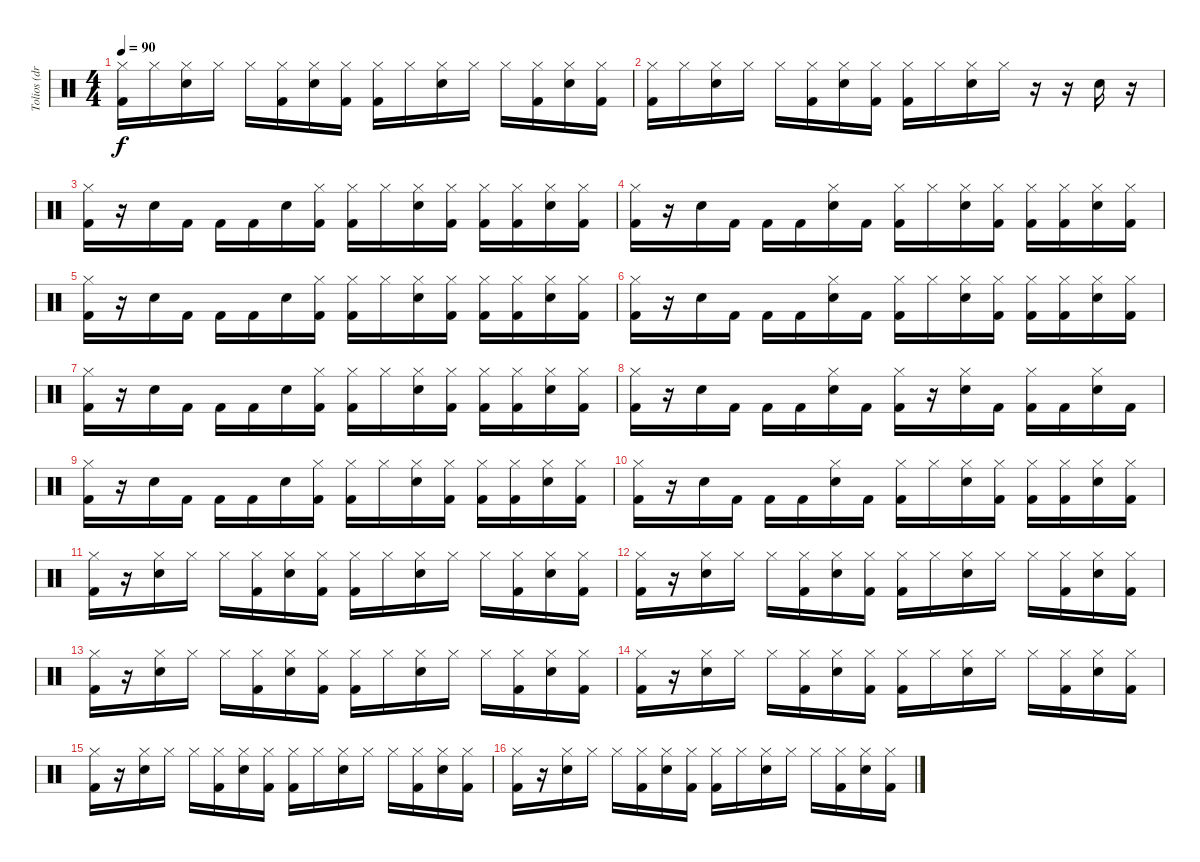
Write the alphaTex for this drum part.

\track ("Tolios (drums)" "Tolios (dr") {instrument percussion}
\staff {score}
\articulation defaults
\ts (4 4)
\tempo 90
\clef neutral
\ks c
("Hi-Hat (closed)" "Kick (hit) 2").16{dy f} "Hi-Hat (closed)".16 ("Hi-Hat (closed)" "Snare (hit) 2").16 "Hi-Hat (closed)".16 "Hi-Hat (closed)".16 ("Hi-Hat (closed)" "Kick (hit) 2").16 ("Hi-Hat (closed)" "Snare (hit) 2").16 ("Hi-Hat (closed)" "Kick (hit) 2").16 ("Hi-Hat (closed)" "Kick (hit) 2").16 "Hi-Hat (closed)".16 ("Hi-Hat (closed)" "Snare (hit) 2").16 "Hi-Hat (closed)".16 "Hi-Hat (closed)".16 ("Hi-Hat (closed)" "Kick (hit) 2").16 ("Hi-Hat (closed)" "Snare (hit) 2").16 ("Hi-Hat (closed)" "Kick (hit) 2").16 |
("Hi-Hat (closed)" "Kick (hit) 2").16 "Hi-Hat (closed)".16 ("Hi-Hat (closed)" "Snare (hit) 2").16 "Hi-Hat (closed)".16 "Hi-Hat (closed)".16 ("Hi-Hat (closed)" "Kick (hit) 2").16 ("Hi-Hat (closed)" "Snare (hit) 2").16 ("Hi-Hat (closed)" "Kick (hit) 2").16 ("Hi-Hat (closed)" "Kick (hit) 2").16 "Hi-Hat (closed)".16 ("Hi-Hat (closed)" "Snare (hit) 2").16 "Hi-Hat (closed)".16 r.16 r.16 "Snare (hit) 2".16 r.16 |
("Hi-Hat (closed)" "Kick (hit) 2").16 r.16 "Snare (hit) 2".16 "Kick (hit) 2".16 "Kick (hit) 2".16 "Kick (hit) 2".16 "Snare (hit) 2".16 ("Hi-Hat (closed)" "Kick (hit) 2").16 ("Hi-Hat (closed)" "Kick (hit) 2").16 "Hi-Hat (closed)".16 ("Hi-Hat (closed)" "Snare (hit) 2").16 ("Hi-Hat (closed)" "Kick (hit) 2").16 ("Hi-Hat (closed)" "Kick (hit) 2").16 ("Kick (hit) 2" "Hi-Hat (closed)").16 ("Hi-Hat (closed)" "Snare (hit) 2").16 ("Kick (hit) 2" "Hi-Hat (closed)").16 |
("Hi-Hat (closed)" "Kick (hit) 2").16 r.16 "Snare (hit) 2".16 "Kick (hit) 2".16 "Kick (hit) 2".16 "Kick (hit) 2".16 ("Hi-Hat (closed)" "Snare (hit) 2").16 "Kick (hit) 2".16 ("Hi-Hat (closed)" "Kick (hit) 2").16 "Hi-Hat (closed)".16 ("Hi-Hat (closed)" "Snare (hit) 2").16 ("Hi-Hat (closed)" "Kick (hit) 2").16 ("Hi-Hat (closed)" "Kick (hit) 2").16 ("Kick (hit) 2" "Hi-Hat (closed)").16 ("Hi-Hat (closed)" "Snare (hit) 2").16 ("Kick (hit) 2" "Hi-Hat (closed)").16 |
("Hi-Hat (closed)" "Kick (hit) 2").16 r.16 "Snare (hit) 2".16 "Kick (hit) 2".16 "Kick (hit) 2".16 "Kick (hit) 2".16 "Snare (hit) 2".16 ("Hi-Hat (closed)" "Kick (hit) 2").16 ("Hi-Hat (closed)" "Kick (hit) 2").16 "Hi-Hat (closed)".16 ("Hi-Hat (closed)" "Snare (hit) 2").16 ("Hi-Hat (closed)" "Kick (hit) 2").16 ("Hi-Hat (closed)" "Kick (hit) 2").16 ("Kick (hit) 2" "Hi-Hat (closed)").16 ("Hi-Hat (closed)" "Snare (hit) 2").16 ("Kick (hit) 2" "Hi-Hat (closed)").16 |
("Hi-Hat (closed)" "Kick (hit) 2").16 r.16 "Snare (hit) 2".16 "Kick (hit) 2".16 "Kick (hit) 2".16 "Kick (hit) 2".16 ("Hi-Hat (closed)" "Snare (hit) 2").16 "Kick (hit) 2".16 ("Hi-Hat (closed)" "Kick (hit) 2").16 "Hi-Hat (closed)".16 ("Hi-Hat (closed)" "Snare (hit) 2").16 ("Hi-Hat (closed)" "Kick (hit) 2").16 ("Hi-Hat (closed)" "Kick (hit) 2").16 ("Kick (hit) 2" "Hi-Hat (closed)").16 ("Hi-Hat (closed)" "Snare (hit) 2").16 ("Kick (hit) 2" "Hi-Hat (closed)").16 |
("Hi-Hat (closed)" "Kick (hit) 2").16 r.16 "Snare (hit) 2".16 "Kick (hit) 2".16 "Kick (hit) 2".16 "Kick (hit) 2".16 "Snare (hit) 2".16 ("Hi-Hat (closed)" "Kick (hit) 2").16 ("Hi-Hat (closed)" "Kick (hit) 2").16 "Hi-Hat (closed)".16 ("Hi-Hat (closed)" "Snare (hit) 2").16 ("Hi-Hat (closed)" "Kick (hit) 2").16 ("Hi-Hat (closed)" "Kick (hit) 2").16 ("Kick (hit) 2" "Hi-Hat (closed)").16 ("Hi-Hat (closed)" "Snare (hit) 2").16 ("Kick (hit) 2" "Hi-Hat (closed)").16 |
("Kick (hit) 2" "Hi-Hat (closed)").16 r.16 "Snare (hit) 2".16 "Kick (hit) 2".16 "Kick (hit) 2".16 "Kick (hit) 2".16 ("Hi-Hat (closed)" "Snare (hit) 2").16 "Kick (hit) 2".16 ("Hi-Hat (closed)" "Kick (hit) 2").16 r.16 ("Hi-Hat (closed)" "Snare (hit) 2").16 "Kick (hit) 2".16 ("Hi-Hat (closed)" "Kick (hit) 2").16 "Kick (hit) 2".16 ("Hi-Hat (closed)" "Snare (hit) 2").16 "Kick (hit) 2".16 |
("Hi-Hat (closed)" "Kick (hit) 2").16 r.16 "Snare (hit) 2".16 "Kick (hit) 2".16 "Kick (hit) 2".16 "Kick (hit) 2".16 "Snare (hit) 2".16 ("Hi-Hat (closed)" "Kick (hit) 2").16 ("Hi-Hat (closed)" "Kick (hit) 2").16 "Hi-Hat (closed)".16 ("Hi-Hat (closed)" "Snare (hit) 2").16 ("Hi-Hat (closed)" "Kick (hit) 2").16 ("Hi-Hat (closed)" "Kick (hit) 2").16 ("Kick (hit) 2" "Hi-Hat (closed)").16 ("Hi-Hat (closed)" "Snare (hit) 2").16 ("Kick (hit) 2" "Hi-Hat (closed)").16 |
("Hi-Hat (closed)" "Kick (hit) 2").16 r.16 "Snare (hit) 2".16 "Kick (hit) 2".16 "Kick (hit) 2".16 "Kick (hit) 2".16 ("Hi-Hat (closed)" "Snare (hit) 2").16 "Kick (hit) 2".16 ("Hi-Hat (closed)" "Kick (hit) 2").16 "Hi-Hat (closed)".16 ("Hi-Hat (closed)" "Snare (hit) 2").16 ("Hi-Hat (closed)" "Kick (hit) 2").16 ("Hi-Hat (closed)" "Kick (hit) 2").16 ("Kick (hit) 2" "Hi-Hat (closed)").16 ("Hi-Hat (closed)" "Snare (hit) 2").16 ("Kick (hit) 2" "Hi-Hat (closed)").16 |
("Hi-Hat (closed)" "Kick (hit) 2").16 r.16 ("Hi-Hat (closed)" "Snare (hit) 2").16 "Hi-Hat (closed)".16 "Hi-Hat (closed)".16 ("Hi-Hat (closed)" "Kick (hit) 2").16 ("Hi-Hat (closed)" "Snare (hit) 2").16 ("Hi-Hat (closed)" "Kick (hit) 2").16 ("Hi-Hat (closed)" "Kick (hit) 2").16 "Hi-Hat (closed)".16 ("Hi-Hat (closed)" "Snare (hit) 2").16 "Hi-Hat (closed)".16 "Hi-Hat (closed)".16 ("Hi-Hat (closed)" "Kick (hit) 2").16 ("Hi-Hat (closed)" "Snare (hit) 2").16 ("Hi-Hat (closed)" "Kick (hit) 2").16 |
("Hi-Hat (closed)" "Kick (hit) 2").16 r.16 ("Hi-Hat (closed)" "Snare (hit) 2").16 "Hi-Hat (closed)".16 "Hi-Hat (closed)".16 ("Hi-Hat (closed)" "Kick (hit) 2").16 ("Hi-Hat (closed)" "Snare (hit) 2").16 ("Hi-Hat (closed)" "Kick (hit) 2").16 ("Hi-Hat (closed)" "Kick (hit) 2").16 "Hi-Hat (closed)".16 ("Hi-Hat (closed)" "Snare (hit) 2").16 "Hi-Hat (closed)".16 "Hi-Hat (closed)".16 ("Hi-Hat (closed)" "Kick (hit) 2").16 ("Hi-Hat (closed)" "Snare (hit) 2").16 ("Hi-Hat (closed)" "Kick (hit) 2").16 |
("Hi-Hat (closed)" "Kick (hit) 2").16 r.16 ("Hi-Hat (closed)" "Snare (hit) 2").16 "Hi-Hat (closed)".16 "Hi-Hat (closed)".16 ("Hi-Hat (closed)" "Kick (hit) 2").16 ("Hi-Hat (closed)" "Snare (hit) 2").16 ("Hi-Hat (closed)" "Kick (hit) 2").16 ("Hi-Hat (closed)" "Kick (hit) 2").16 "Hi-Hat (closed)".16 ("Hi-Hat (closed)" "Snare (hit) 2").16 "Hi-Hat (closed)".16 "Hi-Hat (closed)".16 ("Hi-Hat (closed)" "Kick (hit) 2").16 ("Hi-Hat (closed)" "Snare (hit) 2").16 ("Hi-Hat (closed)" "Kick (hit) 2").16 |
("Hi-Hat (closed)" "Kick (hit) 2").16 r.16 ("Hi-Hat (closed)" "Snare (hit) 2").16 "Hi-Hat (closed)".16 "Hi-Hat (closed)".16 ("Hi-Hat (closed)" "Kick (hit) 2").16 ("Hi-Hat (closed)" "Snare (hit) 2").16 ("Hi-Hat (closed)" "Kick (hit) 2").16 ("Hi-Hat (closed)" "Kick (hit) 2").16 "Hi-Hat (closed)".16 ("Hi-Hat (closed)" "Snare (hit) 2").16 "Hi-Hat (closed)".16 "Hi-Hat (closed)".16 ("Hi-Hat (closed)" "Kick (hit) 2").16 ("Hi-Hat (closed)" "Snare (hit) 2").16 ("Hi-Hat (closed)" "Kick (hit) 2").16 |
("Hi-Hat (closed)" "Kick (hit) 2").16 r.16 ("Hi-Hat (closed)" "Snare (hit) 2").16 "Hi-Hat (closed)".16 "Hi-Hat (closed)".16 ("Hi-Hat (closed)" "Kick (hit) 2").16 ("Hi-Hat (closed)" "Snare (hit) 2").16 ("Hi-Hat (closed)" "Kick (hit) 2").16 ("Hi-Hat (closed)" "Kick (hit) 2").16 "Hi-Hat (closed)".16 ("Hi-Hat (closed)" "Snare (hit) 2").16 "Hi-Hat (closed)".16 "Hi-Hat (closed)".16 ("Hi-Hat (closed)" "Kick (hit) 2").16 ("Hi-Hat (closed)" "Snare (hit) 2").16 ("Hi-Hat (closed)" "Kick (hit) 2").16 |
("Hi-Hat (closed)" "Kick (hit) 2").16 r.16 ("Hi-Hat (closed)" "Snare (hit) 2").16 "Hi-Hat (closed)".16 "Hi-Hat (closed)".16 ("Hi-Hat (closed)" "Kick (hit) 2").16 ("Hi-Hat (closed)" "Snare (hit) 2").16 ("Hi-Hat (closed)" "Kick (hit) 2").16 ("Hi-Hat (closed)" "Kick (hit) 2").16 "Hi-Hat (closed)".16 ("Hi-Hat (closed)" "Snare (hit) 2").16 "Hi-Hat (closed)".16 "Hi-Hat (closed)".16 ("Hi-Hat (closed)" "Kick (hit) 2").16 ("Hi-Hat (closed)" "Snare (hit) 2").16 ("Hi-Hat (closed)" "Kick (hit) 2").16
